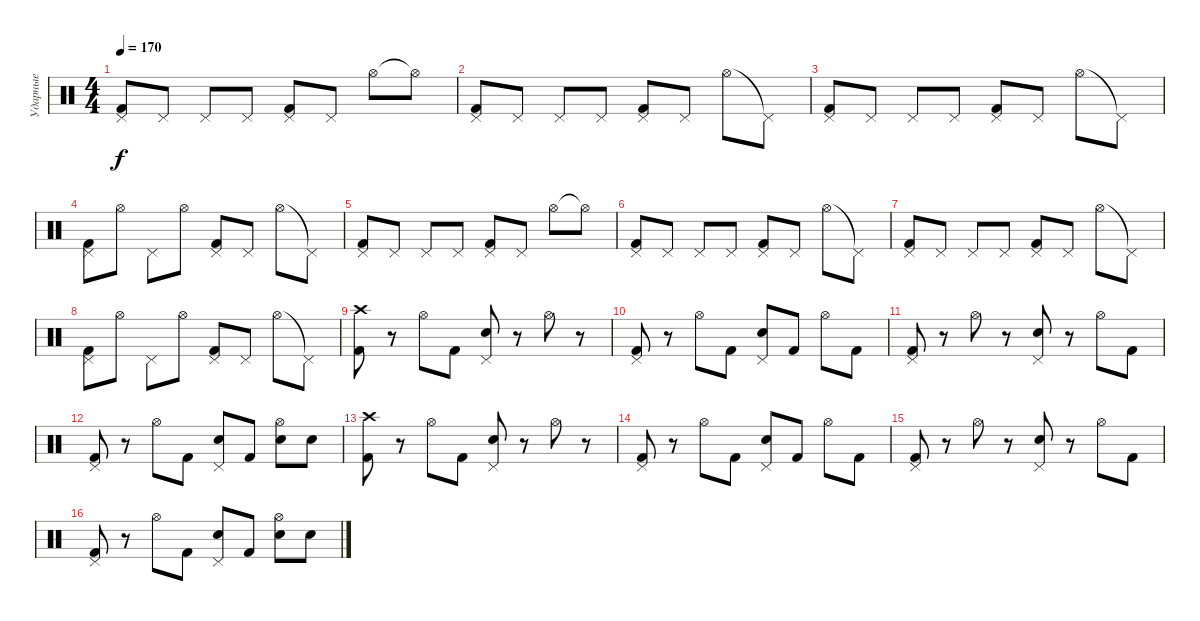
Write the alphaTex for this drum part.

\track ("Ударные" "Ударные") {instrument percussion}
\staff {score}
\articulation defaults
\ts (4 4)
\tempo 170
\clef neutral
\ks c
("Pedal Hi-Hat (hit)" "Kick (hit) 2").8{dy f} "Pedal Hi-Hat (hit)".8 "Pedal Hi-Hat (hit)".8 "Pedal Hi-Hat (hit)".8 ("Pedal Hi-Hat (hit)" "Kick (hit) 2").8 "Pedal Hi-Hat (hit)".8 "Hi-Hat (open)".8 "Hi-Hat (open)"{t}.8 |
("Pedal Hi-Hat (hit)" "Kick (hit) 2").8 "Pedal Hi-Hat (hit)".8 "Pedal Hi-Hat (hit)".8 "Pedal Hi-Hat (hit)".8 ("Pedal Hi-Hat (hit)" "Kick (hit) 2").8 "Pedal Hi-Hat (hit)".8 "Hi-Hat (open)".8 "Pedal Hi-Hat (hit)"{t}.8 |
("Pedal Hi-Hat (hit)" "Kick (hit) 2").8 "Pedal Hi-Hat (hit)".8 "Pedal Hi-Hat (hit)".8 "Pedal Hi-Hat (hit)".8 ("Pedal Hi-Hat (hit)" "Kick (hit) 2").8 "Pedal Hi-Hat (hit)".8 "Hi-Hat (open)".8 "Pedal Hi-Hat (hit)"{t}.8 |
("Pedal Hi-Hat (hit)" "Kick (hit) 2").8 "Hi-Hat (open)".8 "Pedal Hi-Hat (hit)".8 "Hi-Hat (open)".8 ("Pedal Hi-Hat (hit)" "Kick (hit) 2").8 "Pedal Hi-Hat (hit)".8 "Hi-Hat (open)".8 "Pedal Hi-Hat (hit)"{t}.8 |
("Pedal Hi-Hat (hit)" "Kick (hit) 2").8 "Pedal Hi-Hat (hit)".8 "Pedal Hi-Hat (hit)".8 "Pedal Hi-Hat (hit)".8 ("Pedal Hi-Hat (hit)" "Kick (hit) 2").8 "Pedal Hi-Hat (hit)".8 "Hi-Hat (open)".8 "Hi-Hat (open)"{t}.8 |
("Pedal Hi-Hat (hit)" "Kick (hit) 2").8 "Pedal Hi-Hat (hit)".8 "Pedal Hi-Hat (hit)".8 "Pedal Hi-Hat (hit)".8 ("Pedal Hi-Hat (hit)" "Kick (hit) 2").8 "Pedal Hi-Hat (hit)".8 "Hi-Hat (open)".8 "Pedal Hi-Hat (hit)"{t}.8 |
("Pedal Hi-Hat (hit)" "Kick (hit) 2").8 "Pedal Hi-Hat (hit)".8 "Pedal Hi-Hat (hit)".8 "Pedal Hi-Hat (hit)".8 ("Pedal Hi-Hat (hit)" "Kick (hit) 2").8 "Pedal Hi-Hat (hit)".8 "Hi-Hat (open)".8 "Pedal Hi-Hat (hit)"{t}.8 |
("Pedal Hi-Hat (hit)" "Kick (hit) 2").8 "Hi-Hat (open)".8 "Pedal Hi-Hat (hit)".8 "Hi-Hat (open)".8 ("Pedal Hi-Hat (hit)" "Kick (hit) 2").8 "Pedal Hi-Hat (hit)".8 "Hi-Hat (open)".8 "Pedal Hi-Hat (hit)"{t}.8 |
("Crash high (hit)" "Kick (hit) 2").8 r.8 "Hi-Hat (open)".8 "Kick (hit) 2".8 ("Pedal Hi-Hat (hit)" "Snare (hit) 2").8 r.8 "Hi-Hat (open)".8 r.8 |
("Pedal Hi-Hat (hit)" "Kick (hit) 2").8 r.8 "Hi-Hat (open)".8 "Kick (hit) 2".8 ("Pedal Hi-Hat (hit)" "Snare (hit) 2").8 "Kick (hit) 2".8 "Hi-Hat (open)".8 "Kick (hit) 2".8 |
("Pedal Hi-Hat (hit)" "Kick (hit) 2").8 r.8 "Hi-Hat (open)".8 r.8 ("Pedal Hi-Hat (hit)" "Snare (hit) 2").8 r.8 "Hi-Hat (open)".8 "Kick (hit) 2".8 |
("Pedal Hi-Hat (hit)" "Kick (hit) 2").8 r.8 "Hi-Hat (open)".8 "Kick (hit) 2".8 ("Pedal Hi-Hat (hit)" "Snare (hit) 2").8 "Kick (hit) 2".8 ("Hi-Hat (open)" "Snare (hit) 2").8 "Snare (hit) 2".8 |
("Crash high (hit)" "Kick (hit) 2").8 r.8 "Hi-Hat (open)".8 "Kick (hit) 2".8 ("Pedal Hi-Hat (hit)" "Snare (hit) 2").8 r.8 "Hi-Hat (open)".8 r.8 |
("Pedal Hi-Hat (hit)" "Kick (hit) 2").8 r.8 "Hi-Hat (open)".8 "Kick (hit) 2".8 ("Pedal Hi-Hat (hit)" "Snare (hit) 2").8 "Kick (hit) 2".8 "Hi-Hat (open)".8 "Kick (hit) 2".8 |
("Pedal Hi-Hat (hit)" "Kick (hit) 2").8 r.8 "Hi-Hat (open)".8 r.8 ("Pedal Hi-Hat (hit)" "Snare (hit) 2").8 r.8 "Hi-Hat (open)".8 "Kick (hit) 2".8 |
("Pedal Hi-Hat (hit)" "Kick (hit) 2").8 r.8 "Hi-Hat (open)".8 "Kick (hit) 2".8 ("Pedal Hi-Hat (hit)" "Snare (hit) 2").8 "Kick (hit) 2".8 ("Hi-Hat (open)" "Snare (hit) 2").8 "Snare (hit) 2".8
